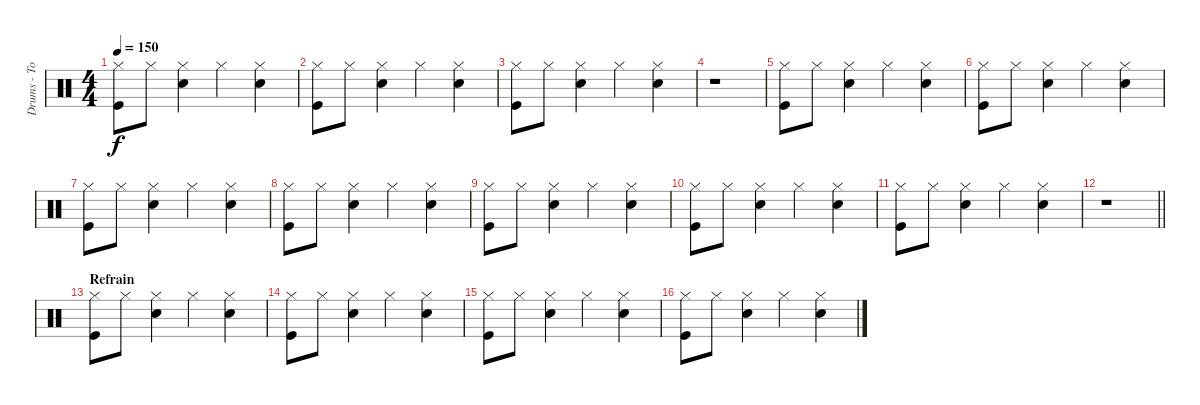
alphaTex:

\track ("Drums - Tobi Häuser" "Drums - To") {instrument percussion}
\staff {score}
\articulation defaults
\ts (4 4)
\tempo 150
\clef neutral
\ks c
("Hi-Hat (closed)" "Kick (hit)").8{dy f} "Hi-Hat (closed)".8 ("Hi-Hat (closed)" "Snare (hit) 2").4 "Hi-Hat (closed)".4 ("Hi-Hat (closed)" "Snare (hit) 2").4 |
("Hi-Hat (closed)" "Kick (hit)").8 "Hi-Hat (closed)".8 ("Hi-Hat (closed)" "Snare (hit) 2").4 "Hi-Hat (closed)".4 ("Hi-Hat (closed)" "Snare (hit) 2").4 |
("Hi-Hat (closed)" "Kick (hit)").8 "Hi-Hat (closed)".8 ("Hi-Hat (closed)" "Snare (hit) 2").4 "Hi-Hat (closed)".4 ("Hi-Hat (closed)" "Snare (hit) 2").4 |
r.1 |
("Hi-Hat (closed)" "Kick (hit)").8 "Hi-Hat (closed)".8 ("Hi-Hat (closed)" "Snare (hit) 2").4 "Hi-Hat (closed)".4 ("Hi-Hat (closed)" "Snare (hit) 2").4 |
("Hi-Hat (closed)" "Kick (hit)").8 "Hi-Hat (closed)".8 ("Hi-Hat (closed)" "Snare (hit) 2").4 "Hi-Hat (closed)".4 ("Hi-Hat (closed)" "Snare (hit) 2").4 |
("Hi-Hat (closed)" "Kick (hit)").8 "Hi-Hat (closed)".8 ("Hi-Hat (closed)" "Snare (hit) 2").4 "Hi-Hat (closed)".4 ("Hi-Hat (closed)" "Snare (hit) 2").4 |
("Hi-Hat (closed)" "Kick (hit)").8 "Hi-Hat (closed)".8 ("Hi-Hat (closed)" "Snare (hit) 2").4 "Hi-Hat (closed)".4 ("Hi-Hat (closed)" "Snare (hit) 2").4 |
("Hi-Hat (closed)" "Kick (hit)").8 "Hi-Hat (closed)".8 ("Hi-Hat (closed)" "Snare (hit) 2").4 "Hi-Hat (closed)".4 ("Hi-Hat (closed)" "Snare (hit) 2").4 |
("Hi-Hat (closed)" "Kick (hit)").8 "Hi-Hat (closed)".8 ("Hi-Hat (closed)" "Snare (hit) 2").4 "Hi-Hat (closed)".4 ("Hi-Hat (closed)" "Snare (hit) 2").4 |
("Hi-Hat (closed)" "Kick (hit)").8 "Hi-Hat (closed)".8 ("Hi-Hat (closed)" "Snare (hit) 2").4 "Hi-Hat (closed)".4 ("Hi-Hat (closed)" "Snare (hit) 2").4 |
\barLineRight lightlight
r.1 |
\section ("" "Refrain")
("Hi-Hat (closed)" "Kick (hit)").8 "Hi-Hat (closed)".8 ("Hi-Hat (closed)" "Snare (hit) 2").4 "Hi-Hat (closed)".4 ("Hi-Hat (closed)" "Snare (hit) 2").4 |
("Hi-Hat (closed)" "Kick (hit)").8 "Hi-Hat (closed)".8 ("Hi-Hat (closed)" "Snare (hit) 2").4 "Hi-Hat (closed)".4 ("Hi-Hat (closed)" "Snare (hit) 2").4 |
("Hi-Hat (closed)" "Kick (hit)").8 "Hi-Hat (closed)".8 ("Hi-Hat (closed)" "Snare (hit) 2").4 "Hi-Hat (closed)".4 ("Hi-Hat (closed)" "Snare (hit) 2").4 |
("Hi-Hat (closed)" "Kick (hit)").8 "Hi-Hat (closed)".8 ("Hi-Hat (closed)" "Snare (hit) 2").4 "Hi-Hat (closed)".4 ("Hi-Hat (closed)" "Snare (hit) 2").4
